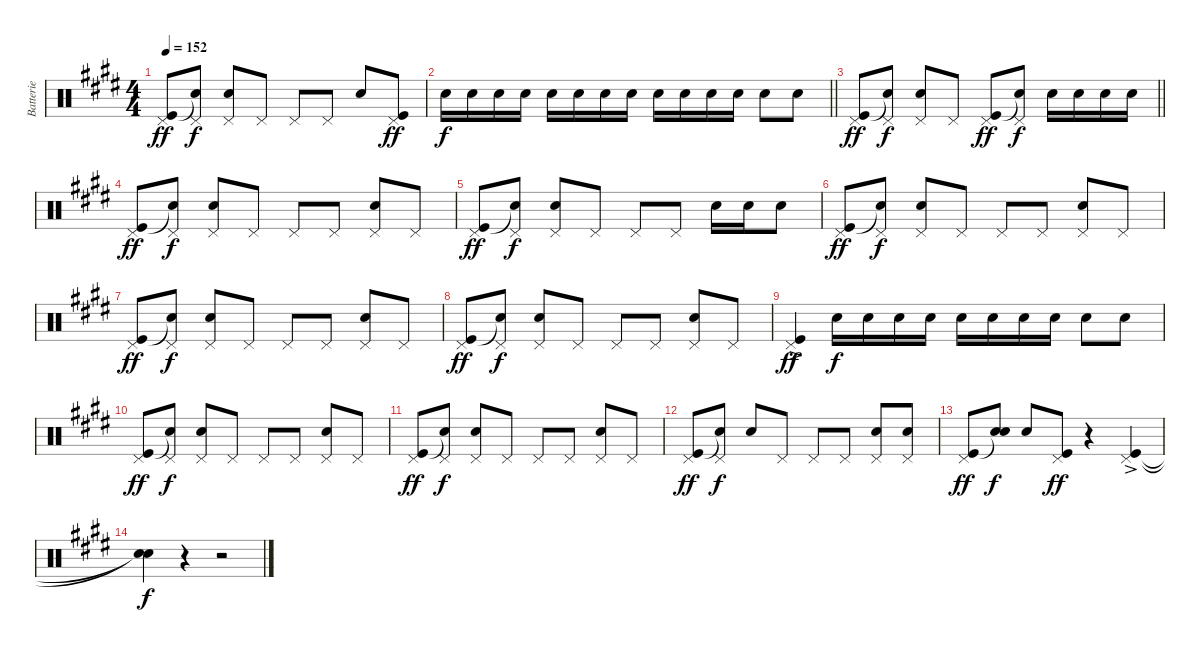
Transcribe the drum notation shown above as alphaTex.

\track ("Batterie" "Batterie") {instrument percussion}
\staff {score}
\articulation defaults
\ts (4 4)
\tempo 152
\clef neutral
\ks e
("Pedal Hi-Hat (hit)" "Kick (hit)").8{dy ff} ("Pedal Hi-Hat (hit)" "Snare (hit)"{t}).8{dy f} ("Pedal Hi-Hat (hit)" "Electric Snare (hit)").8 "Pedal Hi-Hat (hit)".8 "Pedal Hi-Hat (hit)".8 "Pedal Hi-Hat (hit)".8 "Electric Snare (hit)".8 ("Pedal Hi-Hat (hit)" "Kick (hit)").8{dy ff} |
\barLineRight lightlight "Electric Snare (hit)".16{dy f} "Electric Snare (hit)".16 "Electric Snare (hit)".16 "Electric Snare (hit)".16 "Electric Snare (hit)".16 "Electric Snare (hit)".16 "Electric Snare (hit)".16 "Electric Snare (hit)".16 "Electric Snare (hit)".16 "Electric Snare (hit)".16 "Electric Snare (hit)".16 "Electric Snare (hit)".16 "Electric Snare (hit)".8 "Electric Snare (hit)".8
|
\barLineRight lightlight
("Pedal Hi-Hat (hit)" "Kick (hit)").8{dy ff} ("Pedal Hi-Hat (hit)" "Snare (hit)"{t}).8{dy f} ("Pedal Hi-Hat (hit)" "Electric Snare (hit)").8 "Pedal Hi-Hat (hit)".8 ("Pedal Hi-Hat (hit)" "Kick (hit)").8{dy ff} ("Pedal Hi-Hat (hit)" "Snare (hit)"{t}).8{dy f} "Electric Snare (hit)".16 "Electric Snare (hit)".16 "Electric Snare (hit)".16 "Electric Snare (hit)".16 |
("Pedal Hi-Hat (hit)" "Kick (hit)").8{dy ff} ("Pedal Hi-Hat (hit)" "Snare (hit)"{t}).8{dy f} ("Pedal Hi-Hat (hit)" "Electric Snare (hit)").8 "Pedal Hi-Hat (hit)".8 "Pedal Hi-Hat (hit)".8 "Pedal Hi-Hat (hit)".8 ("Pedal Hi-Hat (hit)" "Electric Snare (hit)").8 "Pedal Hi-Hat (hit)".8 |
("Pedal Hi-Hat (hit)" "Kick (hit)").8{dy ff} ("Pedal Hi-Hat (hit)" "Snare (hit)"{t}).8{dy f} ("Pedal Hi-Hat (hit)" "Electric Snare (hit)").8 "Pedal Hi-Hat (hit)".8 "Pedal Hi-Hat (hit)".8 "Pedal Hi-Hat (hit)".8 "Electric Snare (hit)".16 "Electric Snare (hit)".16 "Electric Snare (hit)".8 |
("Pedal Hi-Hat (hit)" "Kick (hit)").8{dy ff} ("Pedal Hi-Hat (hit)" "Snare (hit)"{t}).8{dy f} ("Pedal Hi-Hat (hit)" "Electric Snare (hit)").8 "Pedal Hi-Hat (hit)".8 "Pedal Hi-Hat (hit)".8 "Pedal Hi-Hat (hit)".8 ("Pedal Hi-Hat (hit)" "Electric Snare (hit)").8 "Pedal Hi-Hat (hit)".8 |
("Pedal Hi-Hat (hit)" "Kick (hit)").8{dy ff} ("Pedal Hi-Hat (hit)" "Snare (hit)"{t}).8{dy f} ("Pedal Hi-Hat (hit)" "Electric Snare (hit)").8 "Pedal Hi-Hat (hit)".8 "Pedal Hi-Hat (hit)".8 "Pedal Hi-Hat (hit)".8 ("Pedal Hi-Hat (hit)" "Electric Snare (hit)").8 "Pedal Hi-Hat (hit)".8 |
("Pedal Hi-Hat (hit)" "Kick (hit)").8{dy ff} ("Pedal Hi-Hat (hit)" "Snare (hit)"{t}).8{dy f} ("Pedal Hi-Hat (hit)" "Electric Snare (hit)").8 "Pedal Hi-Hat (hit)".8 "Pedal Hi-Hat (hit)".8 "Pedal Hi-Hat (hit)".8 ("Pedal Hi-Hat (hit)" "Electric Snare (hit)").8 "Pedal Hi-Hat (hit)".8 |
("Pedal Hi-Hat (hit)"{ac} "Kick (hit)"{ac}).4{dy ff} "Electric Snare (hit)".16{dy f} "Electric Snare (hit)".16 "Electric Snare (hit)".16 "Electric Snare (hit)".16 "Electric Snare (hit)".16 "Electric Snare (hit)".16 "Electric Snare (hit)".16 "Electric Snare (hit)".16 "Electric Snare (hit)".8 "Electric Snare (hit)".8 |
("Pedal Hi-Hat (hit)" "Kick (hit)").8{dy ff} ("Pedal Hi-Hat (hit)" "Snare (hit)"{t}).8{dy f} ("Pedal Hi-Hat (hit)" "Electric Snare (hit)").8 "Pedal Hi-Hat (hit)".8 "Pedal Hi-Hat (hit)".8 "Pedal Hi-Hat (hit)".8 ("Pedal Hi-Hat (hit)" "Electric Snare (hit)").8 "Pedal Hi-Hat (hit)".8 |
("Pedal Hi-Hat (hit)" "Kick (hit)").8{dy ff} ("Pedal Hi-Hat (hit)" "Snare (hit)"{t}).8{dy f} ("Pedal Hi-Hat (hit)" "Electric Snare (hit)").8 "Pedal Hi-Hat (hit)".8 "Pedal Hi-Hat (hit)".8 "Pedal Hi-Hat (hit)".8 ("Pedal Hi-Hat (hit)" "Electric Snare (hit)").8 "Pedal Hi-Hat (hit)".8 |
("Pedal Hi-Hat (hit)" "Kick (hit)").8{dy ff} ("Pedal Hi-Hat (hit)" "Snare (hit)"{t}).8{dy f} "Electric Snare (hit)".8 "Pedal Hi-Hat (hit)".8 "Pedal Hi-Hat (hit)".8 "Pedal Hi-Hat (hit)".8 ("Pedal Hi-Hat (hit)" "Electric Snare (hit)").8 ("Pedal Hi-Hat (hit)" "Electric Snare (hit)").8 |
("Pedal Hi-Hat (hit)" "Kick (hit)").8{dy ff} ("Electric Snare (hit)" "Snare (hit)"{t}).8{dy f} "Electric Snare (hit)".8 ("Pedal Hi-Hat (hit)" "Kick (hit)").8{dy ff} r.4 ("Pedal Hi-Hat (hit)"{ac} "Kick (hit)"{ac}).4 |
("Snare (hit)"{t} "Snare (hit)"{t}).4{dy f} r.4 r.2
